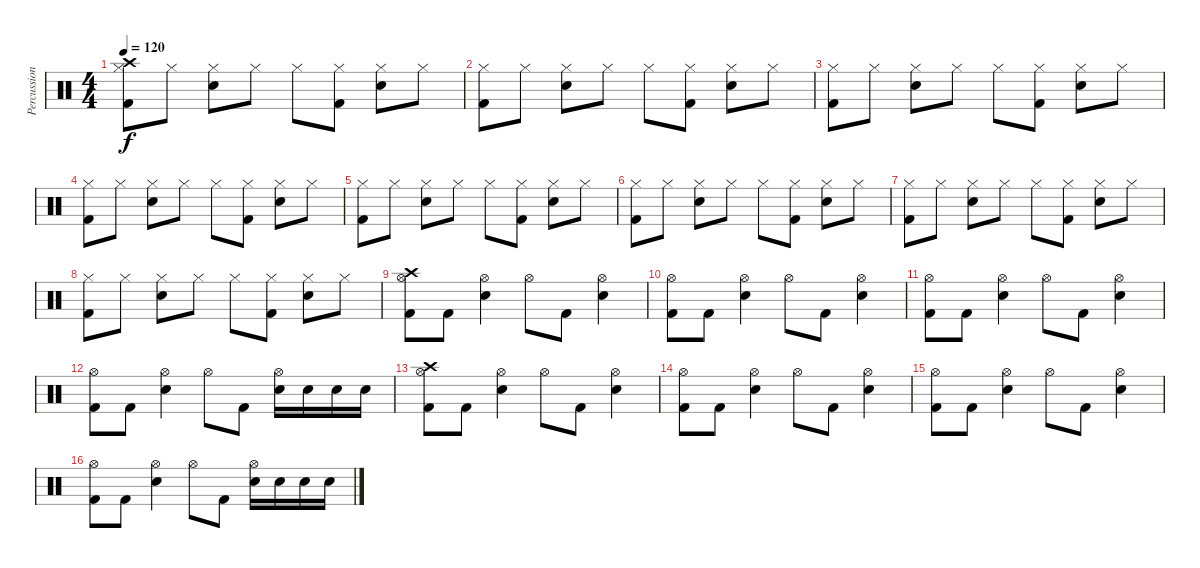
\track ("Percussion" "Percussion") {instrument percussion}
\staff {score}
\articulation defaults
\ts (4 4)
\tempo 120
\clef neutral
\ks c
("Hi-Hat (closed)" "Crash high (hit)" "Kick (hit) 2").8{dy f} "Hi-Hat (closed)".8 ("Hi-Hat (closed)" "Electric Snare (hit)").8 "Hi-Hat (closed)".8 "Hi-Hat (closed)".8 ("Hi-Hat (closed)" "Kick (hit) 2").8 ("Hi-Hat (closed)" "Electric Snare (hit)").8 "Hi-Hat (closed)".8 |
("Hi-Hat (closed)" "Kick (hit) 2").8 "Hi-Hat (closed)".8 ("Hi-Hat (closed)" "Electric Snare (hit)").8 "Hi-Hat (closed)".8 "Hi-Hat (closed)".8 ("Hi-Hat (closed)" "Kick (hit) 2").8 ("Hi-Hat (closed)" "Electric Snare (hit)").8 "Hi-Hat (closed)".8 |
("Hi-Hat (closed)" "Kick (hit) 2").8 "Hi-Hat (closed)".8 ("Hi-Hat (closed)" "Electric Snare (hit)").8 "Hi-Hat (closed)".8 "Hi-Hat (closed)".8 ("Hi-Hat (closed)" "Kick (hit) 2").8 ("Hi-Hat (closed)" "Electric Snare (hit)").8 "Hi-Hat (closed)".8 |
("Hi-Hat (closed)" "Kick (hit) 2").8 "Hi-Hat (closed)".8 ("Hi-Hat (closed)" "Electric Snare (hit)").8 "Hi-Hat (closed)".8 "Hi-Hat (closed)".8 ("Hi-Hat (closed)" "Kick (hit) 2").8 ("Hi-Hat (closed)" "Electric Snare (hit)").8 "Hi-Hat (closed)".8 |
("Hi-Hat (closed)" "Kick (hit) 2").8 "Hi-Hat (closed)".8 ("Hi-Hat (closed)" "Electric Snare (hit)").8 "Hi-Hat (closed)".8 "Hi-Hat (closed)".8 ("Hi-Hat (closed)" "Kick (hit) 2").8 ("Hi-Hat (closed)" "Electric Snare (hit)").8 "Hi-Hat (closed)".8 |
("Hi-Hat (closed)" "Kick (hit) 2").8 "Hi-Hat (closed)".8 ("Hi-Hat (closed)" "Electric Snare (hit)").8 "Hi-Hat (closed)".8 "Hi-Hat (closed)".8 ("Hi-Hat (closed)" "Kick (hit) 2").8 ("Hi-Hat (closed)" "Electric Snare (hit)").8 "Hi-Hat (closed)".8 |
("Hi-Hat (closed)" "Kick (hit) 2").8 "Hi-Hat (closed)".8 ("Hi-Hat (closed)" "Electric Snare (hit)").8 "Hi-Hat (closed)".8 "Hi-Hat (closed)".8 ("Hi-Hat (closed)" "Kick (hit) 2").8 ("Hi-Hat (closed)" "Electric Snare (hit)").8 "Hi-Hat (closed)".8 |
("Hi-Hat (closed)" "Kick (hit) 2").8 "Hi-Hat (closed)".8 ("Hi-Hat (closed)" "Electric Snare (hit)").8 "Hi-Hat (closed)".8 "Hi-Hat (closed)".8 ("Hi-Hat (closed)" "Kick (hit) 2").8 ("Hi-Hat (closed)" "Electric Snare (hit)").8 "Hi-Hat (closed)".8 |
("Crash high (hit)" "Kick (hit) 2" "Hi-Hat (open)").8 "Kick (hit) 2".8 ("Electric Snare (hit)" "Hi-Hat (open)").4 "Hi-Hat (open)".8 "Kick (hit) 2".8 ("Electric Snare (hit)" "Hi-Hat (open)").4 |
("Kick (hit) 2" "Hi-Hat (open)").8 "Kick (hit) 2".8 ("Electric Snare (hit)" "Hi-Hat (open)").4 "Hi-Hat (open)".8 "Kick (hit) 2".8 ("Electric Snare (hit)" "Hi-Hat (open)").4 |
("Kick (hit) 2" "Hi-Hat (open)").8 "Kick (hit) 2".8 ("Electric Snare (hit)" "Hi-Hat (open)").4 "Hi-Hat (open)".8 "Kick (hit) 2".8 ("Electric Snare (hit)" "Hi-Hat (open)").4 |
("Kick (hit) 2" "Hi-Hat (open)").8 "Kick (hit) 2".8 ("Electric Snare (hit)" "Hi-Hat (open)").4 "Hi-Hat (open)".8 "Kick (hit) 2".8 ("Electric Snare (hit)" "Hi-Hat (open)").16 "Electric Snare (hit)".16 "Electric Snare (hit)".16 "Electric Snare (hit)".16 |
("Crash high (hit)" "Kick (hit) 2" "Hi-Hat (open)").8 "Kick (hit) 2".8 ("Electric Snare (hit)" "Hi-Hat (open)").4 "Hi-Hat (open)".8 "Kick (hit) 2".8 ("Electric Snare (hit)" "Hi-Hat (open)").4 |
("Kick (hit) 2" "Hi-Hat (open)").8 "Kick (hit) 2".8 ("Electric Snare (hit)" "Hi-Hat (open)").4 "Hi-Hat (open)".8 "Kick (hit) 2".8 ("Electric Snare (hit)" "Hi-Hat (open)").4 |
("Kick (hit) 2" "Hi-Hat (open)").8 "Kick (hit) 2".8 ("Electric Snare (hit)" "Hi-Hat (open)").4 "Hi-Hat (open)".8 "Kick (hit) 2".8 ("Electric Snare (hit)" "Hi-Hat (open)").4 |
("Kick (hit) 2" "Hi-Hat (open)").8 "Kick (hit) 2".8 ("Electric Snare (hit)" "Hi-Hat (open)").4 "Hi-Hat (open)".8 "Kick (hit) 2".8 ("Electric Snare (hit)" "Hi-Hat (open)").16 "Electric Snare (hit)".16 "Electric Snare (hit)".16 "Electric Snare (hit)".16
